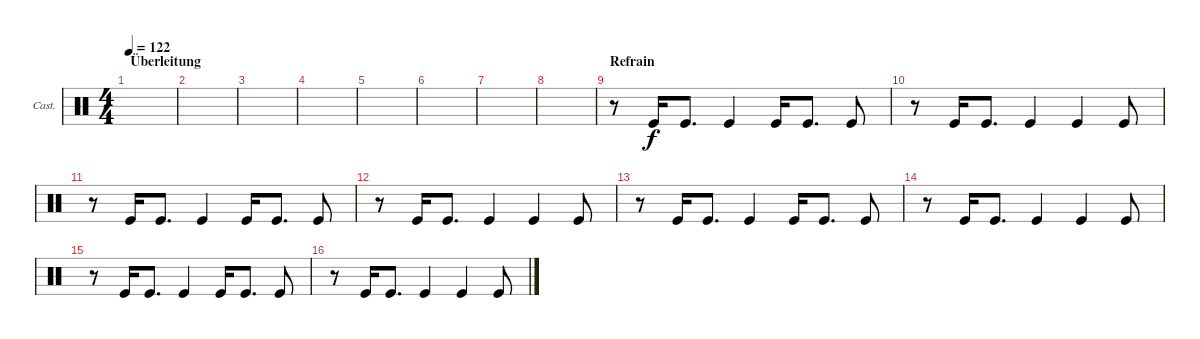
\defaultSystemsLayout 4
\bracketExtendMode groupsimilarinstruments
\firstSystemTrackNameOrientation horizontal
\otherSystemsTrackNameOrientation horizontal
\track ("Castanets" "Cast.") {instrument percussion}
\staff {score}
\articulation defaults
\ts (4 4)
\section ("" "Überleitung")
\scale
0.468023
\tempo 122
\accidentals auto
\clef neutral
\ottava regular
\simile none
\ks c
|
|
|
|
|
\scale
0.268041 |
\scale
0.223859 |
\scale
0.270987 |
\section ("" "Refrain")
\scale
0.237113 r.8 "Kick (hit)".16 "Kick (hit)".8{d} "Kick (hit)".4 "Kick (hit)".16 "Kick (hit)".8{d} "Kick (hit)".8 |
r.8 "Kick (hit)".16 "Kick (hit)".8{d} "Kick (hit)".4 "Kick (hit)".4 "Kick (hit)".8 |
r.8 "Kick (hit)".16 "Kick (hit)".8{d} "Kick (hit)".4 "Kick (hit)".16 "Kick (hit)".8{d} "Kick (hit)".8 |
r.8 "Kick (hit)".16 "Kick (hit)".8{d} "Kick (hit)".4 "Kick (hit)".4 "Kick (hit)".8 |
r.8 "Kick (hit)".16 "Kick (hit)".8{d} "Kick (hit)".4 "Kick (hit)".16 "Kick (hit)".8{d} "Kick (hit)".8 |
r.8 "Kick (hit)".16 "Kick (hit)".8{d} "Kick (hit)".4 "Kick (hit)".4 "Kick (hit)".8 |
r.8 "Kick (hit)".16 "Kick (hit)".8{d} "Kick (hit)".4 "Kick (hit)".16 "Kick (hit)".8{d} "Kick (hit)".8 |
r.8 "Kick (hit)".16 "Kick (hit)".8{d} "Kick (hit)".4 "Kick (hit)".4 "Kick (hit)".8
